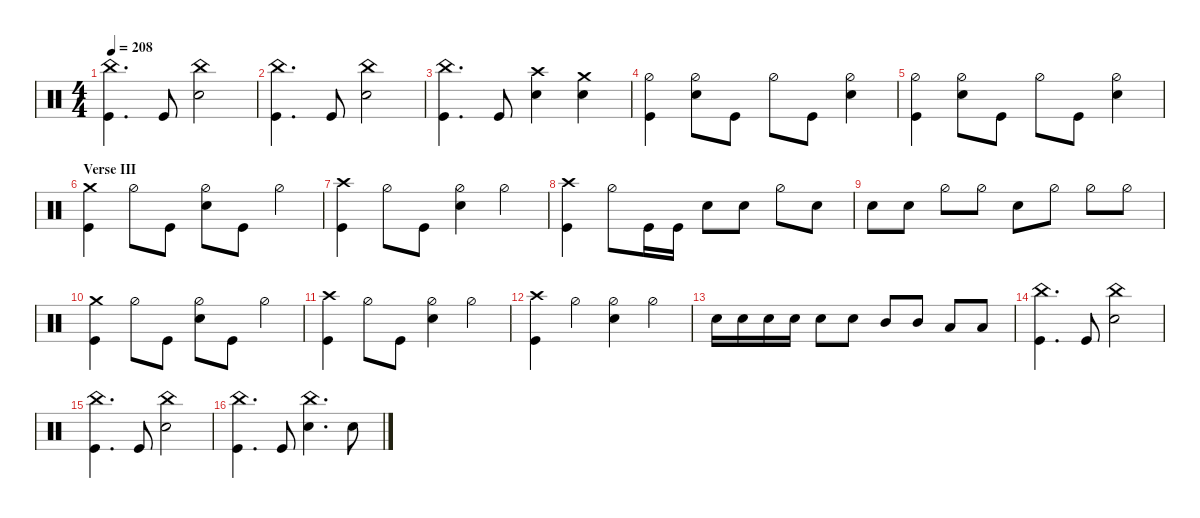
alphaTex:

\defaultSystemsLayout 4
\hideDynamics
\bracketExtendMode nobrackets
\singleTrackTrackNamePolicy hidden
\multiTrackTrackNamePolicy hidden
\otherSystemsTrackNameOrientation horizontal
\track ("Drums" "drm.") {multiBarRest instrument percussion}
\staff {score}
\articulation defaults
\ts (4 4)
\tempo 208
\clef neutral
\ks c
("China (hit)" "Kick (hit)").4{d dy f beam Down} "Kick (hit)".8{beam Up} ("Snare (hit) 2" "China (hit)").2{beam Down} |
("China (hit)" "Kick (hit)").4{d beam Down} "Kick (hit)".8{beam Up} ("Snare (hit) 2" "China (hit)").2{beam Down} |
("China (hit)" "Kick (hit)").4{d beam Down} "Kick (hit)".8{beam Up} ("Snare (hit) 2" "Crash high (hit)").4{beam Down} ("Snare (hit) 2" "Crash medium (hit)").4{beam Down} |
("Kick (hit)" "Hi-Hat (half)").4{beam Down} ("Snare (hit) 2" "Hi-Hat (half)").8{beam Down} "Kick (hit)".8{beam Down} "Hi-Hat (half)".8{beam Down} "Kick (hit)".8{beam Down} ("Snare (hit) 2" "Hi-Hat (half)").4{beam Down} |
("Kick (hit)" "Hi-Hat (half)").4{beam Down} ("Snare (hit) 2" "Hi-Hat (half)").8{beam Down} "Kick (hit)".8{beam Down} "Hi-Hat (half)".8{beam Down} "Kick (hit)".8{beam Down} ("Snare (hit) 2" "Hi-Hat (half)").4{beam Down} |
\section ("" "Verse III")
("Crash medium (hit)" "Kick (hit)").4{beam Down} "Hi-Hat (half)".8{beam Down} "Kick (hit)".8{beam Down} ("Hi-Hat (half)" "Snare (hit) 2").8{beam Down} "Kick (hit)".8{beam Down} "Hi-Hat (half)".4{beam Down} |
("Kick (hit)" "Crash high (hit)").4{beam Down} "Hi-Hat (half)".8{beam Down} "Kick (hit)".8{beam Down} ("Snare (hit) 2" "Hi-Hat (half)").4{beam Down} "Hi-Hat (half)".4{beam Down} |
("Crash high (hit)" "Kick (hit)").4{beam Down} "Hi-Hat (half)".8{beam Down} "Kick (hit)".16{beam Down} "Kick (hit)".16{beam Down} "Snare (hit) 2".8{beam Down} "Snare (hit) 2".8{beam Down} "Hi-Hat (half)".8{beam Down} "Snare (hit) 2".8{beam Down} |
"Snare (hit) 2".8{beam Down} "Snare (hit) 2".8{beam Down} "Hi-Hat (half)".8{beam Down} "Hi-Hat (half)".8{beam Down} "Snare (hit) 2".8{beam Down} "Hi-Hat (half)".8{beam Down} "Hi-Hat (half)".8{beam Down} "Hi-Hat (half)".8{beam Down} |
("Crash medium (hit)" "Kick (hit)").4{beam Down} "Hi-Hat (half)".8{beam Down} "Kick (hit)".8{beam Down} ("Hi-Hat (half)" "Snare (hit) 2").8{beam Down} "Kick (hit)".8{beam Down} "Hi-Hat (half)".4{beam Down} |
("Kick (hit)" "Crash high (hit)").4{beam Down} "Hi-Hat (half)".8{beam Down} "Kick (hit)".8{beam Down} ("Snare (hit) 2" "Hi-Hat (half)").4{beam Down} "Hi-Hat (half)".4{beam Down} |
("Kick (hit)" "Crash high (hit)").4{beam Down} "Hi-Hat (half)".4{beam Down} ("Snare (hit) 2" "Hi-Hat (half)").4{beam Down} "Hi-Hat (half)".4{beam Down} |
"Snare (hit) 2".16{beam Down} "Snare (hit) 2".16{beam Down} "Snare (hit) 2".16{beam Down} "Snare (hit) 2".16{beam Down} "Snare (hit) 2".8{beam Down} "Snare (hit) 2".8{beam Down} "Mid Tom (hit)".8{dy ff beam Up} "Mid Tom (hit)".8{beam Up} "Low Tom (hit)".8{beam Up} "Low Tom (hit)".8{beam Up} |
("China (hit)" "Kick (hit)").4{d dy f beam Down} "Kick (hit)".8{beam Up} ("Snare (hit) 2" "China (hit)").2{beam Down} |
("China (hit)" "Kick (hit)").4{d beam Down} "Kick (hit)".8{beam Up} ("Snare (hit) 2" "China (hit)").2{beam Down} |
("China (hit)" "Kick (hit)").4{d beam Down} "Kick (hit)".8{beam Up} ("Snare (hit) 2" "China (hit)").4{d beam Down} "Snare (hit) 2".8{beam Down}
